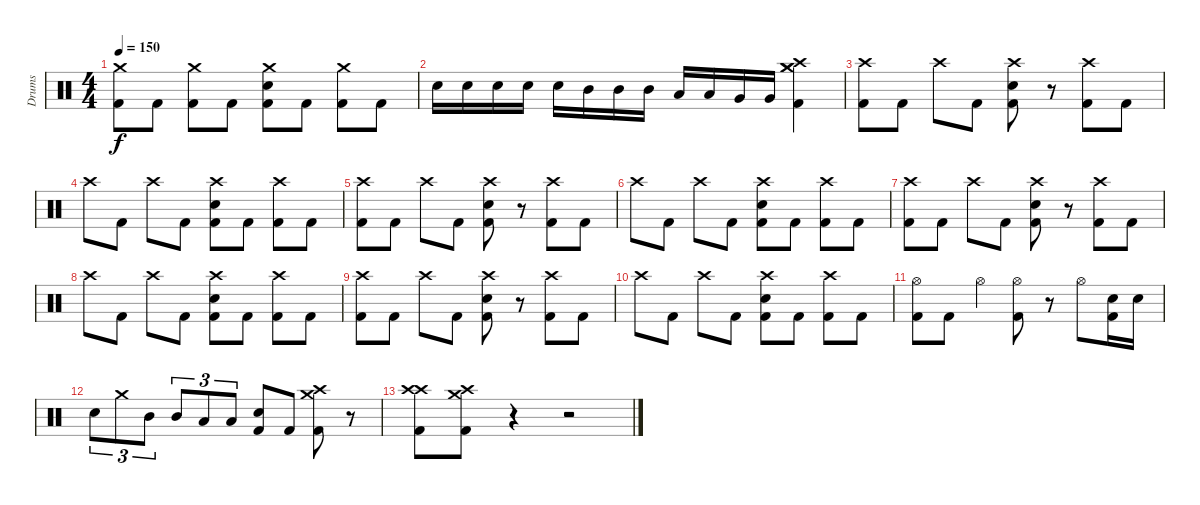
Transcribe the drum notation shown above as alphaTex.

\track ("Drums" "Drums") {instrument percussion}
\staff {score}
\articulation defaults
\ts (4 4)
\tempo 150
\clef neutral
\ks c
("Crash medium (hit)" "Kick (hit) 2").8{dy f} "Kick (hit) 2".8 ("Crash medium (hit)" "Kick (hit) 2").8 "Kick (hit) 2".8 ("Crash medium (hit)" "Snare (hit) 2" "Kick (hit) 2").8 "Kick (hit) 2".8 ("Crash medium (hit)" "Kick (hit) 2").8 "Kick (hit) 2".8 |
"Snare (hit) 2".16 "Snare (hit) 2".16 "Snare (hit) 2".16 "Snare (hit) 2".16 "Snare (hit) 2".16 "Mid Tom (hit)".16 "Mid Tom (hit)".16 "Mid Tom (hit)".16 "Low Tom (hit)".16 "Low Tom (hit)".16 "Very Low Tom (hit)".16 "Very Low Tom (hit)".16 ("Crash medium (hit)" "Crash medium (hit)" "Crash high (hit)" "Kick (hit) 2").4 |
("Crash high (hit)" "Kick (hit) 2").8 "Kick (hit) 2".8 "Crash high (hit)".8 "Kick (hit) 2".8 ("Crash high (hit)" "Snare (hit) 2" "Kick (hit) 2").8 r.8 ("Crash high (hit)" "Kick (hit) 2").8 "Kick (hit) 2".8 |
"Crash high (hit)".8 "Kick (hit) 2".8 "Crash high (hit)".8 "Kick (hit) 2".8 ("Crash high (hit)" "Snare (hit) 2" "Kick (hit) 2").8 "Kick (hit) 2".8 ("Crash high (hit)" "Kick (hit) 2").8 "Kick (hit) 2".8 |
("Crash high (hit)" "Kick (hit) 2").8 "Kick (hit) 2".8 "Crash high (hit)".8 "Kick (hit) 2".8 ("Crash high (hit)" "Snare (hit) 2" "Kick (hit) 2").8 r.8 ("Crash high (hit)" "Kick (hit) 2").8 "Kick (hit) 2".8 |
"Crash high (hit)".8 "Kick (hit) 2".8 "Crash high (hit)".8 "Kick (hit) 2".8 ("Crash high (hit)" "Snare (hit) 2" "Kick (hit) 2").8 "Kick (hit) 2".8 ("Crash high (hit)" "Kick (hit) 2").8 "Kick (hit) 2".8 |
("Crash high (hit)" "Kick (hit) 2").8 "Kick (hit) 2".8 "Crash high (hit)".8 "Kick (hit) 2".8 ("Crash high (hit)" "Snare (hit) 2" "Kick (hit) 2").8 r.8 ("Crash high (hit)" "Kick (hit) 2").8 "Kick (hit) 2".8 |
"Crash high (hit)".8 "Kick (hit) 2".8 "Crash high (hit)".8 "Kick (hit) 2".8 ("Crash high (hit)" "Snare (hit) 2" "Kick (hit) 2").8 "Kick (hit) 2".8 ("Crash high (hit)" "Kick (hit) 2").8 "Kick (hit) 2".8 |
("Crash high (hit)" "Kick (hit) 2").8 "Kick (hit) 2".8 "Crash high (hit)".8 "Kick (hit) 2".8 ("Crash high (hit)" "Snare (hit) 2" "Kick (hit) 2").8 r.8 ("Crash high (hit)" "Kick (hit) 2").8 "Kick (hit) 2".8 |
"Crash high (hit)".8 "Kick (hit) 2".8 "Crash high (hit)".8 "Kick (hit) 2".8 ("Crash high (hit)" "Snare (hit) 2" "Kick (hit) 2").8 "Kick (hit) 2".8 ("Crash high (hit)" "Kick (hit) 2").8 "Kick (hit) 2".8 |
("Hi-Hat (open)" "Kick (hit) 2").8 "Kick (hit) 2".8 "Hi-Hat (open)".4 ("Hi-Hat (open)" "Kick (hit) 2").8 r.8 "Hi-Hat (open)".8 ("Snare (hit) 2" "Kick (hit) 2").16 "Snare (hit) 2".16 |
"Snare (hit) 2".8{tu (3 2)} "Crash medium (hit)".8{tu (3 2)} "Mid Tom (hit)".8{tu (3 2)} "Mid Tom (hit)".8{tu (3 2)} "Low Tom (hit)".8{tu (3 2)} "Low Tom (hit)".8{tu (3 2)} ("Snare (hit) 2" "Kick (hit) 2").8 "Kick (hit) 2".8 ("Crash high (hit)" "Crash medium (hit)" "Kick (hit) 2").8 r.8 |
("Crash high (hit)" "Crash high (hit)" "Kick (hit) 2").8 ("Crash medium (hit)" "Crash high (hit)" "Kick (hit) 2").8 r.4 r.2
